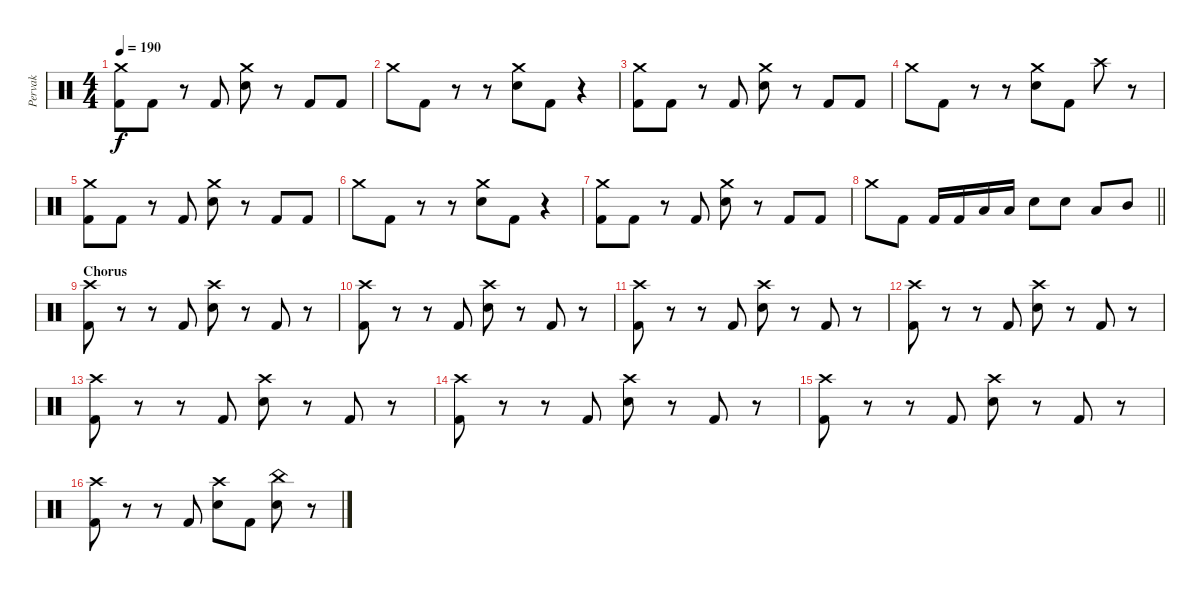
\track ("Pervak" "Pervak") {instrument percussion}
\staff {score}
\articulation defaults
\ts (4 4)
\tempo 190
\clef neutral
\ks c
("Crash medium (hit)" "Kick (hit) 2").8{dy f} "Kick (hit) 2".8 r.8 "Kick (hit) 2".8 ("Crash medium (hit)" "Electric Snare (hit)").8 r.8 "Kick (hit) 2".8 "Kick (hit) 2".8 |
"Crash medium (hit)".8 "Kick (hit) 2".8 r.8 r.8 ("Crash medium (hit)" "Electric Snare (hit)").8 "Kick (hit) 2".8 r.4 |
("Crash medium (hit)" "Kick (hit) 2").8 "Kick (hit) 2".8 r.8 "Kick (hit) 2".8 ("Crash medium (hit)" "Electric Snare (hit)").8 r.8 "Kick (hit) 2".8 "Kick (hit) 2".8 |
"Crash medium (hit)".8 "Kick (hit) 2".8 r.8 r.8 ("Crash medium (hit)" "Electric Snare (hit)").8 "Kick (hit) 2".8 "Crash high (hit)".8 r.8 |
("Crash medium (hit)" "Kick (hit) 2").8 "Kick (hit) 2".8 r.8 "Kick (hit) 2".8 ("Crash medium (hit)" "Electric Snare (hit)").8 r.8 "Kick (hit) 2".8 "Kick (hit) 2".8 |
"Crash medium (hit)".8 "Kick (hit) 2".8 r.8 r.8 ("Crash medium (hit)" "Electric Snare (hit)").8 "Kick (hit) 2".8 r.4 |
("Crash medium (hit)" "Kick (hit) 2").8 "Kick (hit) 2".8 r.8 "Kick (hit) 2".8 ("Crash medium (hit)" "Electric Snare (hit)").8 r.8 "Kick (hit) 2".8 "Kick (hit) 2".8 |
\barLineRight lightlight "Crash medium (hit)".8 "Kick (hit) 2".8 "Kick (hit) 2".16 "Kick (hit) 2".16 "Low Tom (hit)".16 "Low Tom (hit)".16 "Electric Snare (hit)".8 "Electric Snare (hit)".8 "Low Tom (hit)".8 "Mid Tom (hit)".8
|
\section ("" "Chorus")
("Crash high (hit)" "Kick (hit) 2").8 r.8 r.8 "Kick (hit) 2".8 ("Crash high (hit)" "Electric Snare (hit)").8 r.8 "Kick (hit) 2".8 r.8 |
("Crash high (hit)" "Kick (hit) 2").8 r.8 r.8 "Kick (hit) 2".8 ("Crash high (hit)" "Electric Snare (hit)").8 r.8 "Kick (hit) 2".8 r.8 |
("Crash high (hit)" "Kick (hit) 2").8 r.8 r.8 "Kick (hit) 2".8 ("Crash high (hit)" "Electric Snare (hit)").8 r.8 "Kick (hit) 2".8 r.8 |
("Crash high (hit)" "Kick (hit) 2").8 r.8 r.8 "Kick (hit) 2".8 ("Crash high (hit)" "Electric Snare (hit)").8 r.8 "Kick (hit) 2".8 r.8 |
("Crash high (hit)" "Kick (hit) 2").8 r.8 r.8 "Kick (hit) 2".8 ("Crash high (hit)" "Electric Snare (hit)").8 r.8 "Kick (hit) 2".8 r.8 |
("Crash high (hit)" "Kick (hit) 2").8 r.8 r.8 "Kick (hit) 2".8 ("Crash high (hit)" "Electric Snare (hit)").8 r.8 "Kick (hit) 2".8 r.8 |
("Crash high (hit)" "Kick (hit) 2").8 r.8 r.8 "Kick (hit) 2".8 ("Crash high (hit)" "Electric Snare (hit)").8 r.8 "Kick (hit) 2".8 r.8 |
("Crash high (hit)" "Kick (hit) 2").8 r.8 r.8 "Kick (hit) 2".8 ("Crash high (hit)" "Electric Snare (hit)").8 "Kick (hit) 2".8 ("China (hit)" "Electric Snare (hit)").8 r.8
